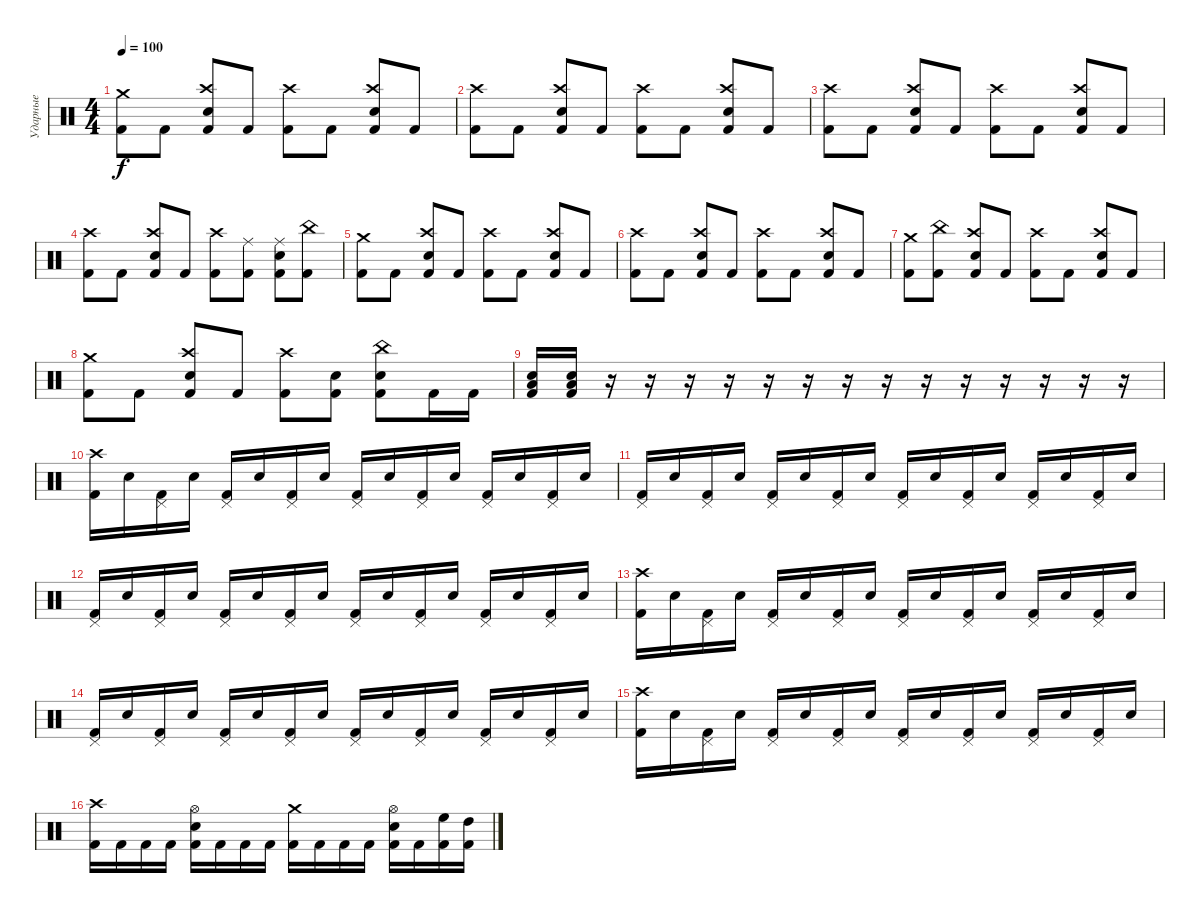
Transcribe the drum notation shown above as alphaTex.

\track ("Ударные" "Ударные") {instrument percussion}
\staff {score}
\articulation defaults
\ts (4 4)
\tempo 100
\clef neutral
\ks c
("Crash medium (hit)" "Kick (hit) 2").8{dy f} "Kick (hit) 2".8 ("Crash high (hit)" "Electric Snare (hit)" "Kick (hit) 2").8 "Kick (hit) 2".8 ("Crash high (hit)" "Kick (hit) 2").8 "Kick (hit) 2".8 ("Crash high (hit)" "Electric Snare (hit)" "Kick (hit) 2").8 "Kick (hit) 2".8 |
("Crash high (hit)" "Kick (hit) 2").8 "Kick (hit) 2".8 ("Crash high (hit)" "Electric Snare (hit)" "Kick (hit) 2").8 "Kick (hit) 2".8 ("Crash high (hit)" "Kick (hit) 2").8 "Kick (hit) 2".8 ("Crash high (hit)" "Electric Snare (hit)" "Kick (hit) 2").8 "Kick (hit) 2".8 |
("Crash high (hit)" "Kick (hit) 2").8 "Kick (hit) 2".8 ("Crash high (hit)" "Electric Snare (hit)" "Kick (hit) 2").8 "Kick (hit) 2".8 ("Crash high (hit)" "Kick (hit) 2").8 "Kick (hit) 2".8 ("Crash high (hit)" "Electric Snare (hit)" "Kick (hit) 2").8 "Kick (hit) 2".8 |
("Crash high (hit)" "Kick (hit) 2").8 "Kick (hit) 2".8 ("Crash high (hit)" "Electric Snare (hit)" "Kick (hit) 2").8 "Kick (hit) 2".8 ("Crash high (hit)" "Kick (hit) 2").8 ("Ride (middle)" "Kick (hit) 2").8 ("Ride (middle)" "Electric Snare (hit)" "Kick (hit) 2").8 ("China (hit)" "Kick (hit) 2").8 |
("Crash medium (hit)" "Kick (hit) 2").8 "Kick (hit) 2".8 ("Crash high (hit)" "Electric Snare (hit)" "Kick (hit) 2").8 "Kick (hit) 2".8 ("Crash high (hit)" "Kick (hit) 2").8 "Kick (hit) 2".8 ("Crash high (hit)" "Electric Snare (hit)" "Kick (hit) 2").8 "Kick (hit) 2".8 |
("Crash high (hit)" "Kick (hit) 2").8 "Kick (hit) 2".8 ("Crash high (hit)" "Electric Snare (hit)" "Kick (hit) 2").8 "Kick (hit) 2".8 ("Crash high (hit)" "Kick (hit) 2").8 "Kick (hit) 2".8 ("Crash high (hit)" "Electric Snare (hit)" "Kick (hit) 2").8 "Kick (hit) 2".8 |
("Crash medium (hit)" "Kick (hit) 2").8 ("China (hit)" "Kick (hit) 2").8 ("Crash high (hit)" "Electric Snare (hit)" "Kick (hit) 2").8 "Kick (hit) 2".8 ("Crash high (hit)" "Kick (hit) 2").8 "Kick (hit) 2".8 ("Crash high (hit)" "Electric Snare (hit)" "Kick (hit) 2").8 "Kick (hit) 2".8 |
("Crash medium (hit)" "Kick (hit) 2").8 "Kick (hit) 2".8 ("Crash high (hit)" "Electric Snare (hit)" "Kick (hit) 2").8 "Kick (hit) 2".8 ("Crash high (hit)" "Kick (hit) 2").8 ("Electric Snare (hit)" "Kick (hit) 2").8 ("China (hit)" "Electric Snare (hit)" "Kick (hit) 2").8 "Kick (hit) 2".16 "Kick (hit) 2".16 |
("Low Tom (hit)" "Electric Snare (hit)" "Kick (hit) 2").16 ("Low Tom (hit)" "Electric Snare (hit)" "Kick (hit) 2").16 r.16 r.16 r.16 r.16 r.16 r.16 r.16 r.16 r.16 r.16 r.16 r.16 r.16 r.16 |
("Crash high (hit)" "Kick (hit) 2").16 "Electric Snare (hit)".16 ("Pedal Hi-Hat (hit)" "Kick (hit) 2").16 "Electric Snare (hit)".16 ("Pedal Hi-Hat (hit)" "Kick (hit) 2").16 "Electric Snare (hit)".16 ("Pedal Hi-Hat (hit)" "Kick (hit) 2").16 "Electric Snare (hit)".16 ("Pedal Hi-Hat (hit)" "Kick (hit) 2").16 "Electric Snare (hit)".16 ("Pedal Hi-Hat (hit)" "Kick (hit) 2").16 "Electric Snare (hit)".16 ("Pedal Hi-Hat (hit)" "Kick (hit) 2").16 "Electric Snare (hit)".16 ("Pedal Hi-Hat (hit)" "Kick (hit) 2").16 "Electric Snare (hit)".16 |
("Pedal Hi-Hat (hit)" "Kick (hit) 2").16 "Electric Snare (hit)".16 ("Pedal Hi-Hat (hit)" "Kick (hit) 2").16 "Electric Snare (hit)".16 ("Pedal Hi-Hat (hit)" "Kick (hit) 2").16 "Electric Snare (hit)".16 ("Pedal Hi-Hat (hit)" "Kick (hit) 2").16 "Electric Snare (hit)".16 ("Pedal Hi-Hat (hit)" "Kick (hit) 2").16 "Electric Snare (hit)".16 ("Pedal Hi-Hat (hit)" "Kick (hit) 2").16 "Electric Snare (hit)".16 ("Pedal Hi-Hat (hit)" "Kick (hit) 2").16 "Electric Snare (hit)".16 ("Pedal Hi-Hat (hit)" "Kick (hit) 2").16 "Electric Snare (hit)".16 |
("Pedal Hi-Hat (hit)" "Kick (hit) 2").16 "Electric Snare (hit)".16 ("Pedal Hi-Hat (hit)" "Kick (hit) 2").16 "Electric Snare (hit)".16 ("Pedal Hi-Hat (hit)" "Kick (hit) 2").16 "Electric Snare (hit)".16 ("Pedal Hi-Hat (hit)" "Kick (hit) 2").16 "Electric Snare (hit)".16 ("Pedal Hi-Hat (hit)" "Kick (hit) 2").16 "Electric Snare (hit)".16 ("Pedal Hi-Hat (hit)" "Kick (hit) 2").16 "Electric Snare (hit)".16 ("Pedal Hi-Hat (hit)" "Kick (hit) 2").16 "Electric Snare (hit)".16 ("Pedal Hi-Hat (hit)" "Kick (hit) 2").16 "Electric Snare (hit)".16 |
("Crash high (hit)" "Kick (hit) 2").16 "Electric Snare (hit)".16 ("Pedal Hi-Hat (hit)" "Kick (hit) 2").16 "Electric Snare (hit)".16 ("Pedal Hi-Hat (hit)" "Kick (hit) 2").16 "Electric Snare (hit)".16 ("Pedal Hi-Hat (hit)" "Kick (hit) 2").16 "Electric Snare (hit)".16 ("Pedal Hi-Hat (hit)" "Kick (hit) 2").16 "Electric Snare (hit)".16 ("Pedal Hi-Hat (hit)" "Kick (hit) 2").16 "Electric Snare (hit)".16 ("Pedal Hi-Hat (hit)" "Kick (hit) 2").16 "Electric Snare (hit)".16 ("Pedal Hi-Hat (hit)" "Kick (hit) 2").16 "Electric Snare (hit)".16 |
("Pedal Hi-Hat (hit)" "Kick (hit) 2").16 "Electric Snare (hit)".16 ("Pedal Hi-Hat (hit)" "Kick (hit) 2").16 "Electric Snare (hit)".16 ("Pedal Hi-Hat (hit)" "Kick (hit) 2").16 "Electric Snare (hit)".16 ("Pedal Hi-Hat (hit)" "Kick (hit) 2").16 "Electric Snare (hit)".16 ("Pedal Hi-Hat (hit)" "Kick (hit) 2").16 "Electric Snare (hit)".16 ("Pedal Hi-Hat (hit)" "Kick (hit) 2").16 "Electric Snare (hit)".16 ("Pedal Hi-Hat (hit)" "Kick (hit) 2").16 "Electric Snare (hit)".16 ("Pedal Hi-Hat (hit)" "Kick (hit) 2").16 "Electric Snare (hit)".16 |
("Crash high (hit)" "Kick (hit) 2").16 "Electric Snare (hit)".16 ("Pedal Hi-Hat (hit)" "Kick (hit) 2").16 "Electric Snare (hit)".16 ("Pedal Hi-Hat (hit)" "Kick (hit) 2").16 "Electric Snare (hit)".16 ("Pedal Hi-Hat (hit)" "Kick (hit) 2").16 "Electric Snare (hit)".16 ("Pedal Hi-Hat (hit)" "Kick (hit) 2").16 "Electric Snare (hit)".16 ("Pedal Hi-Hat (hit)" "Kick (hit) 2").16 "Electric Snare (hit)".16 ("Pedal Hi-Hat (hit)" "Kick (hit) 2").16 "Electric Snare (hit)".16 ("Pedal Hi-Hat (hit)" "Kick (hit) 2").16 "Electric Snare (hit)".16 |
("Crash high (hit)" "Kick (hit) 2").16 "Kick (hit) 2".16 "Kick (hit) 2".16 "Kick (hit) 2".16 ("Hi-Hat (open)" "Electric Snare (hit)" "Kick (hit) 2").16 "Kick (hit) 2".16 "Kick (hit) 2".16 "Kick (hit) 2".16 ("Crash medium (hit)" "Kick (hit) 2").16 "Kick (hit) 2".16 "Kick (hit) 2".16 "Kick (hit) 2".16 ("Hi-Hat (open)" "Electric Snare (hit)" "Kick (hit) 2").16 "Kick (hit) 2".16 ("High Floor Tom (hit)" "Kick (hit) 2").16 ("High Tom (hit)" "Kick (hit) 2").16
